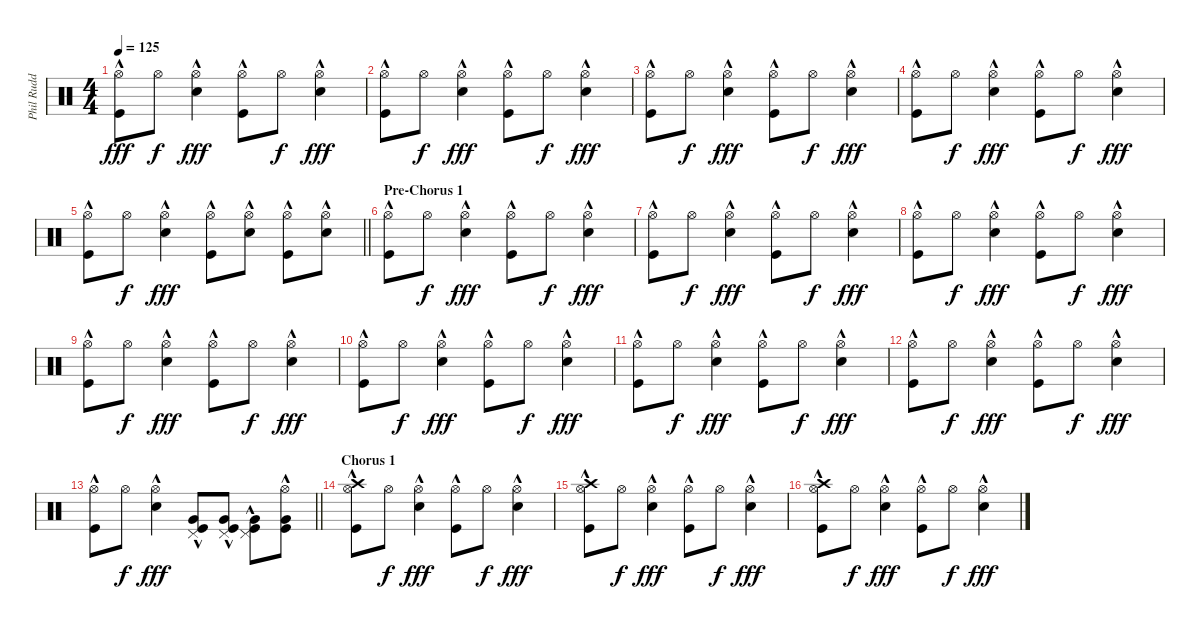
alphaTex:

\track ("Phil Rudd" "Phil Rudd") {instrument percussion}
\staff {score}
\articulation defaults
\ts (4 4)
\tempo 125
\clef neutral
\ks c
("Hi-Hat (open)" "Kick (hit)"{hac}).8{dy fff} "Hi-Hat (open)".8{dy f} ("Snare (hit) 2"{hac} "Hi-Hat (open)").4{dy fff} ("Hi-Hat (open)" "Kick (hit)"{hac}).8 "Hi-Hat (open)".8{dy f} ("Snare (hit) 2"{hac} "Hi-Hat (open)").4{dy fff} |
("Hi-Hat (open)" "Kick (hit)"{hac}).8 "Hi-Hat (open)".8{dy f} ("Snare (hit) 2"{hac} "Hi-Hat (open)").4{dy fff} ("Hi-Hat (open)" "Kick (hit)"{hac}).8 "Hi-Hat (open)".8{dy f} ("Snare (hit) 2"{hac} "Hi-Hat (open)").4{dy fff} |
("Hi-Hat (open)" "Kick (hit)"{hac}).8 "Hi-Hat (open)".8{dy f} ("Snare (hit) 2"{hac} "Hi-Hat (open)").4{dy fff} ("Hi-Hat (open)" "Kick (hit)"{hac}).8 "Hi-Hat (open)".8{dy f} ("Snare (hit) 2"{hac} "Hi-Hat (open)").4{dy fff} |
("Hi-Hat (open)" "Kick (hit)"{hac}).8 "Hi-Hat (open)".8{dy f} ("Snare (hit) 2"{hac} "Hi-Hat (open)").4{dy fff} ("Hi-Hat (open)" "Kick (hit)"{hac}).8 "Hi-Hat (open)".8{dy f} ("Snare (hit) 2"{hac} "Hi-Hat (open)").4{dy fff} |
\barLineRight lightlight
("Hi-Hat (open)" "Kick (hit)"{hac}).8 "Hi-Hat (open)".8{dy f} ("Snare (hit) 2"{hac} "Hi-Hat (open)").4{dy fff} ("Hi-Hat (open)"{hac} "Kick (hit)").8 ("Snare (hit) 2"{hac} "Hi-Hat (open)").8 ("Hi-Hat (open)"{hac} "Kick (hit)").8 ("Snare (hit) 2"{hac} "Hi-Hat (open)").8 |
\section ("" "Pre-Chorus 1")
("Hi-Hat (open)" "Kick (hit)"{hac}).8 "Hi-Hat (open)".8{dy f} ("Snare (hit) 2"{hac} "Hi-Hat (open)").4{dy fff} ("Hi-Hat (open)" "Kick (hit)"{hac}).8 "Hi-Hat (open)".8{dy f} ("Snare (hit) 2"{hac} "Hi-Hat (open)").4{dy fff} |
("Hi-Hat (open)" "Kick (hit)"{hac}).8 "Hi-Hat (open)".8{dy f} ("Snare (hit) 2"{hac} "Hi-Hat (open)").4{dy fff} ("Hi-Hat (open)" "Kick (hit)"{hac}).8 "Hi-Hat (open)".8{dy f} ("Snare (hit) 2"{hac} "Hi-Hat (open)").4{dy fff} |
("Hi-Hat (open)" "Kick (hit)"{hac}).8 "Hi-Hat (open)".8{dy f} ("Snare (hit) 2"{hac} "Hi-Hat (open)").4{dy fff} ("Hi-Hat (open)" "Kick (hit)"{hac}).8 "Hi-Hat (open)".8{dy f} ("Snare (hit) 2"{hac} "Hi-Hat (open)").4{dy fff} |
("Hi-Hat (open)" "Kick (hit)"{hac}).8 "Hi-Hat (open)".8{dy f} ("Snare (hit) 2"{hac} "Hi-Hat (open)").4{dy fff} ("Hi-Hat (open)" "Kick (hit)"{hac}).8 "Hi-Hat (open)".8{dy f} ("Snare (hit) 2"{hac} "Hi-Hat (open)").4{dy fff} |
("Hi-Hat (open)" "Kick (hit)"{hac}).8 "Hi-Hat (open)".8{dy f} ("Snare (hit) 2"{hac} "Hi-Hat (open)").4{dy fff} ("Hi-Hat (open)" "Kick (hit)"{hac}).8 "Hi-Hat (open)".8{dy f} ("Snare (hit) 2"{hac} "Hi-Hat (open)").4{dy fff} |
("Hi-Hat (open)" "Kick (hit)"{hac}).8 "Hi-Hat (open)".8{dy f} ("Snare (hit) 2"{hac} "Hi-Hat (open)").4{dy fff} ("Hi-Hat (open)" "Kick (hit)"{hac}).8 "Hi-Hat (open)".8{dy f} ("Snare (hit) 2"{hac} "Hi-Hat (open)").4{dy fff} |
("Hi-Hat (open)" "Kick (hit)"{hac}).8 "Hi-Hat (open)".8{dy f} ("Snare (hit) 2"{hac} "Hi-Hat (open)").4{dy fff} ("Hi-Hat (open)" "Kick (hit)"{hac}).8 "Hi-Hat (open)".8{dy f} ("Snare (hit) 2"{hac} "Hi-Hat (open)").4{dy fff} |
\barLineRight lightlight
("Hi-Hat (open)" "Kick (hit)"{hac}).8 "Hi-Hat (open)".8{dy f} ("Snare (hit) 2"{hac} "Hi-Hat (open)").4{dy fff} ("Very Low Tom (hit)" "Pedal Hi-Hat (hit)" "Kick (hit)"{hac}).8 ("Very Low Tom (hit)"{hac} "Pedal Hi-Hat (hit)" "Kick (hit)").8 ("Very Low Tom (hit)"{hac} "Pedal Hi-Hat (hit)" "Kick (hit)").8 ("Very Low Tom (hit)"{hac} "Hi-Hat (open)" "Kick (hit)").8 |
\section ("" "Chorus 1")
("Hi-Hat (open)" "Crash high (hit)" "Kick (hit)"{hac}).8 "Hi-Hat (open)".8{dy f} ("Snare (hit) 2"{hac} "Hi-Hat (open)").4{dy fff} ("Hi-Hat (open)" "Kick (hit)"{hac}).8 "Hi-Hat (open)".8{dy f} ("Snare (hit) 2"{hac} "Hi-Hat (open)").4{dy fff} |
("Hi-Hat (open)" "Crash high (hit)" "Kick (hit)"{hac}).8 "Hi-Hat (open)".8{dy f} ("Snare (hit) 2"{hac} "Hi-Hat (open)").4{dy fff} ("Hi-Hat (open)" "Kick (hit)"{hac}).8 "Hi-Hat (open)".8{dy f} ("Snare (hit) 2"{hac} "Hi-Hat (open)").4{dy fff} |
("Hi-Hat (open)" "Crash high (hit)" "Kick (hit)"{hac}).8 "Hi-Hat (open)".8{dy f} ("Snare (hit) 2"{hac} "Hi-Hat (open)").4{dy fff} ("Hi-Hat (open)" "Kick (hit)"{hac}).8 "Hi-Hat (open)".8{dy f} ("Snare (hit) 2"{hac} "Hi-Hat (open)").4{dy fff}
